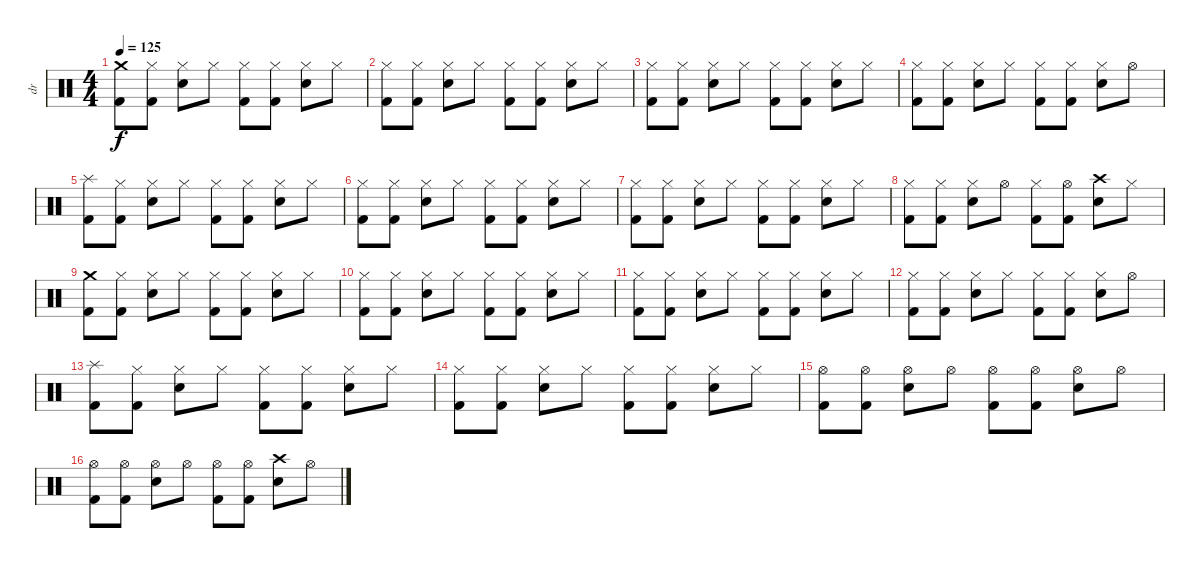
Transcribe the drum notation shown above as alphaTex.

\track ("dr" "dr") {instrument percussion}
\staff {score}
\articulation defaults
\ts (4 4)
\tempo 125
\clef neutral
\ks c
("Crash medium (hit)" "Kick (hit) 2").8{dy f} ("Hi-Hat (closed)" "Kick (hit) 2").8 ("Hi-Hat (closed)" "Snare (hit) 2").8 "Hi-Hat (closed)".8 ("Hi-Hat (closed)" "Kick (hit) 2").8 ("Hi-Hat (closed)" "Kick (hit) 2").8 ("Hi-Hat (closed)" "Snare (hit) 2").8 "Hi-Hat (closed)".8 |
("Hi-Hat (closed)" "Kick (hit) 2").8 ("Hi-Hat (closed)" "Kick (hit) 2").8 ("Hi-Hat (closed)" "Snare (hit) 2").8 "Hi-Hat (closed)".8 ("Hi-Hat (closed)" "Kick (hit) 2").8 ("Hi-Hat (closed)" "Kick (hit) 2").8 ("Hi-Hat (closed)" "Snare (hit) 2").8 "Hi-Hat (closed)".8 |
("Hi-Hat (closed)" "Kick (hit) 2").8 ("Hi-Hat (closed)" "Kick (hit) 2").8 ("Hi-Hat (closed)" "Snare (hit) 2").8 "Hi-Hat (closed)".8 ("Hi-Hat (closed)" "Kick (hit) 2").8 ("Hi-Hat (closed)" "Kick (hit) 2").8 ("Hi-Hat (closed)" "Snare (hit) 2").8 "Hi-Hat (closed)".8 |
("Hi-Hat (closed)" "Kick (hit) 2").8 ("Hi-Hat (closed)" "Kick (hit) 2").8 ("Hi-Hat (closed)" "Snare (hit) 2").8 "Hi-Hat (closed)".8 ("Hi-Hat (closed)" "Kick (hit) 2").8 ("Hi-Hat (closed)" "Kick (hit) 2").8 ("Hi-Hat (closed)" "Snare (hit) 2").8 "Hi-Hat (open)".8 |
("Splash (hit)" "Kick (hit) 2").8 ("Hi-Hat (closed)" "Kick (hit) 2").8 ("Hi-Hat (closed)" "Snare (hit) 2").8 "Hi-Hat (closed)".8 ("Hi-Hat (closed)" "Kick (hit) 2").8 ("Hi-Hat (closed)" "Kick (hit) 2").8 ("Hi-Hat (closed)" "Snare (hit) 2").8 "Hi-Hat (closed)".8 |
("Hi-Hat (closed)" "Kick (hit) 2").8 ("Hi-Hat (closed)" "Kick (hit) 2").8 ("Hi-Hat (closed)" "Snare (hit) 2").8 "Hi-Hat (closed)".8 ("Hi-Hat (closed)" "Kick (hit) 2").8 ("Hi-Hat (closed)" "Kick (hit) 2").8 ("Hi-Hat (closed)" "Snare (hit) 2").8 "Hi-Hat (closed)".8 |
("Hi-Hat (closed)" "Kick (hit) 2").8 ("Hi-Hat (closed)" "Kick (hit) 2").8 ("Hi-Hat (closed)" "Snare (hit) 2").8 "Hi-Hat (closed)".8 ("Hi-Hat (closed)" "Kick (hit) 2").8 ("Hi-Hat (closed)" "Kick (hit) 2").8 ("Hi-Hat (closed)" "Snare (hit) 2").8 "Hi-Hat (closed)".8 |
("Hi-Hat (closed)" "Kick (hit) 2").8 ("Hi-Hat (closed)" "Kick (hit) 2").8 ("Hi-Hat (closed)" "Snare (hit) 2").8 "Hi-Hat (open)".8 ("Hi-Hat (closed)" "Kick (hit) 2").8 ("Hi-Hat (open)" "Kick (hit) 2").8 ("Crash high (hit)" "Snare (hit) 2").8 "Hi-Hat (closed)".8 |
("Crash medium (hit)" "Kick (hit) 2").8 ("Hi-Hat (closed)" "Kick (hit) 2").8 ("Hi-Hat (closed)" "Snare (hit) 2").8 "Hi-Hat (closed)".8 ("Hi-Hat (closed)" "Kick (hit) 2").8 ("Hi-Hat (closed)" "Kick (hit) 2").8 ("Hi-Hat (closed)" "Snare (hit) 2").8 "Hi-Hat (closed)".8 |
("Hi-Hat (closed)" "Kick (hit) 2").8 ("Hi-Hat (closed)" "Kick (hit) 2").8 ("Hi-Hat (closed)" "Snare (hit) 2").8 "Hi-Hat (closed)".8 ("Hi-Hat (closed)" "Kick (hit) 2").8 ("Hi-Hat (closed)" "Kick (hit) 2").8 ("Hi-Hat (closed)" "Snare (hit) 2").8 "Hi-Hat (closed)".8 |
("Hi-Hat (closed)" "Kick (hit) 2").8 ("Hi-Hat (closed)" "Kick (hit) 2").8 ("Hi-Hat (closed)" "Snare (hit) 2").8 "Hi-Hat (closed)".8 ("Hi-Hat (closed)" "Kick (hit) 2").8 ("Hi-Hat (closed)" "Kick (hit) 2").8 ("Hi-Hat (closed)" "Snare (hit) 2").8 "Hi-Hat (closed)".8 |
("Hi-Hat (closed)" "Kick (hit) 2").8 ("Hi-Hat (closed)" "Kick (hit) 2").8 ("Hi-Hat (closed)" "Snare (hit) 2").8 "Hi-Hat (closed)".8 ("Hi-Hat (closed)" "Kick (hit) 2").8 ("Hi-Hat (closed)" "Kick (hit) 2").8 ("Hi-Hat (closed)" "Snare (hit) 2").8 "Hi-Hat (open)".8 |
("Splash (hit)" "Kick (hit) 2").8 ("Hi-Hat (closed)" "Kick (hit) 2").8 ("Hi-Hat (closed)" "Snare (hit) 2").8 "Hi-Hat (closed)".8 ("Hi-Hat (closed)" "Kick (hit) 2").8 ("Hi-Hat (closed)" "Kick (hit) 2").8 ("Hi-Hat (closed)" "Snare (hit) 2").8 "Hi-Hat (closed)".8 |
("Hi-Hat (closed)" "Kick (hit) 2").8 ("Hi-Hat (closed)" "Kick (hit) 2").8 ("Hi-Hat (closed)" "Snare (hit) 2").8 "Hi-Hat (closed)".8 ("Hi-Hat (closed)" "Kick (hit) 2").8 ("Hi-Hat (closed)" "Kick (hit) 2").8 ("Hi-Hat (closed)" "Snare (hit) 2").8 "Hi-Hat (closed)".8 |
("Hi-Hat (open)" "Kick (hit) 2").8 ("Hi-Hat (open)" "Kick (hit) 2").8 ("Hi-Hat (open)" "Snare (hit) 2").8 "Hi-Hat (open)".8 ("Hi-Hat (open)" "Kick (hit) 2").8 ("Hi-Hat (open)" "Kick (hit) 2").8 ("Hi-Hat (open)" "Snare (hit) 2").8 "Hi-Hat (open)".8 |
("Hi-Hat (open)" "Kick (hit) 2").8 ("Hi-Hat (open)" "Kick (hit) 2").8 ("Hi-Hat (open)" "Snare (hit) 2").8 "Hi-Hat (open)".8 ("Hi-Hat (open)" "Kick (hit) 2").8 ("Hi-Hat (open)" "Kick (hit) 2").8 ("Crash high (hit)" "Snare (hit) 2").8 "Hi-Hat (open)".8
